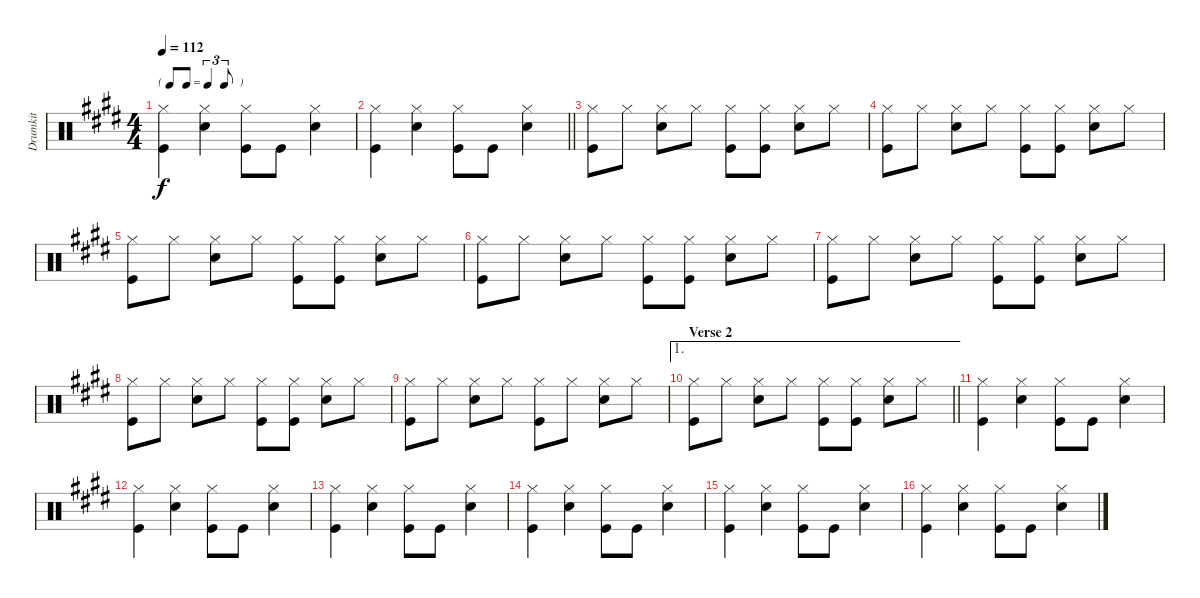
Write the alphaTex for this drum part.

\track ("Drumkit" "Drumkit") {instrument percussion}
\staff {score}
\articulation defaults
\ts (4 4)
\tf triplet8th
\tempo 112
\clef neutral
\ks e
("Hi-Hat (closed)" "Kick (hit)").4{dy f} ("Hi-Hat (closed)" "Snare (hit) 2").4 ("Hi-Hat (closed)" "Kick (hit)").8 "Kick (hit)".8 ("Hi-Hat (closed)" "Snare (hit) 2").4 |
\barLineRight lightlight
("Hi-Hat (closed)" "Kick (hit)").4 ("Hi-Hat (closed)" "Snare (hit) 2").4 ("Hi-Hat (closed)" "Kick (hit)").8 "Kick (hit)".8 ("Hi-Hat (closed)" "Snare (hit) 2").4 |
("Hi-Hat (closed)" "Kick (hit)").8 "Hi-Hat (closed)".8 ("Hi-Hat (closed)" "Snare (hit) 2").8 "Hi-Hat (closed)".8 ("Hi-Hat (closed)" "Kick (hit)").8 ("Hi-Hat (closed)" "Kick (hit)").8 ("Hi-Hat (closed)" "Snare (hit) 2").8 "Hi-Hat (closed)".8 |
("Hi-Hat (closed)" "Kick (hit)").8 "Hi-Hat (closed)".8 ("Hi-Hat (closed)" "Snare (hit) 2").8 "Hi-Hat (closed)".8 ("Hi-Hat (closed)" "Kick (hit)").8 ("Hi-Hat (closed)" "Kick (hit)").8 ("Hi-Hat (closed)" "Snare (hit) 2").8 "Hi-Hat (closed)".8 |
("Hi-Hat (closed)" "Kick (hit)").8 "Hi-Hat (closed)".8 ("Hi-Hat (closed)" "Snare (hit) 2").8 "Hi-Hat (closed)".8 ("Hi-Hat (closed)" "Kick (hit)").8 ("Hi-Hat (closed)" "Kick (hit)").8 ("Hi-Hat (closed)" "Snare (hit) 2").8 "Hi-Hat (closed)".8 |
("Hi-Hat (closed)" "Kick (hit)").8 "Hi-Hat (closed)".8 ("Hi-Hat (closed)" "Snare (hit) 2").8 "Hi-Hat (closed)".8 ("Hi-Hat (closed)" "Kick (hit)").8 ("Hi-Hat (closed)" "Kick (hit)").8 ("Hi-Hat (closed)" "Snare (hit) 2").8 "Hi-Hat (closed)".8 |
("Hi-Hat (closed)" "Kick (hit)").8 "Hi-Hat (closed)".8 ("Hi-Hat (closed)" "Snare (hit) 2").8 "Hi-Hat (closed)".8 ("Hi-Hat (closed)" "Kick (hit)").8 ("Hi-Hat (closed)" "Kick (hit)").8 ("Hi-Hat (closed)" "Snare (hit) 2").8 "Hi-Hat (closed)".8 |
("Hi-Hat (closed)" "Kick (hit)").8 "Hi-Hat (closed)".8 ("Hi-Hat (closed)" "Snare (hit) 2").8 "Hi-Hat (closed)".8 ("Hi-Hat (closed)" "Kick (hit)").8 ("Hi-Hat (closed)" "Kick (hit)").8 ("Hi-Hat (closed)" "Snare (hit) 2").8 "Hi-Hat (closed)".8 |
("Hi-Hat (closed)" "Kick (hit)").8 "Hi-Hat (closed)".8 ("Hi-Hat (closed)" "Snare (hit) 2").8 "Hi-Hat (closed)".8 ("Hi-Hat (closed)" "Kick (hit)").8 "Hi-Hat (closed)".8 ("Hi-Hat (closed)" "Snare (hit) 2").8 "Hi-Hat (closed)".8 |
\ae 1
\section ("" "Verse 2")
\barLineRight lightlight
("Hi-Hat (closed)" "Kick (hit)").8 "Hi-Hat (closed)".8 ("Hi-Hat (closed)" "Snare (hit) 2").8 "Hi-Hat (closed)".8 ("Hi-Hat (closed)" "Kick (hit)").8 ("Hi-Hat (closed)" "Kick (hit)").8 ("Hi-Hat (closed)" "Snare (hit) 2").8 "Hi-Hat (closed)".8 |
("Hi-Hat (closed)" "Kick (hit)").4 ("Hi-Hat (closed)" "Snare (hit) 2").4 ("Hi-Hat (closed)" "Kick (hit)").8 "Kick (hit)".8 ("Hi-Hat (closed)" "Snare (hit) 2").4 |
("Hi-Hat (closed)" "Kick (hit)").4 ("Hi-Hat (closed)" "Snare (hit) 2").4 ("Hi-Hat (closed)" "Kick (hit)").8 "Kick (hit)".8 ("Hi-Hat (closed)" "Snare (hit) 2").4 |
("Hi-Hat (closed)" "Kick (hit)").4 ("Hi-Hat (closed)" "Snare (hit) 2").4 ("Hi-Hat (closed)" "Kick (hit)").8 "Kick (hit)".8 ("Hi-Hat (closed)" "Snare (hit) 2").4 |
("Hi-Hat (closed)" "Kick (hit)").4 ("Hi-Hat (closed)" "Snare (hit) 2").4 ("Hi-Hat (closed)" "Kick (hit)").8 "Kick (hit)".8 ("Hi-Hat (closed)" "Snare (hit) 2").4 |
("Hi-Hat (closed)" "Kick (hit)").4 ("Hi-Hat (closed)" "Snare (hit) 2").4 ("Hi-Hat (closed)" "Kick (hit)").8 "Kick (hit)".8 ("Hi-Hat (closed)" "Snare (hit) 2").4 |
("Hi-Hat (closed)" "Kick (hit)").4 ("Hi-Hat (closed)" "Snare (hit) 2").4 ("Hi-Hat (closed)" "Kick (hit)").8 "Kick (hit)".8 ("Hi-Hat (closed)" "Snare (hit) 2").4
